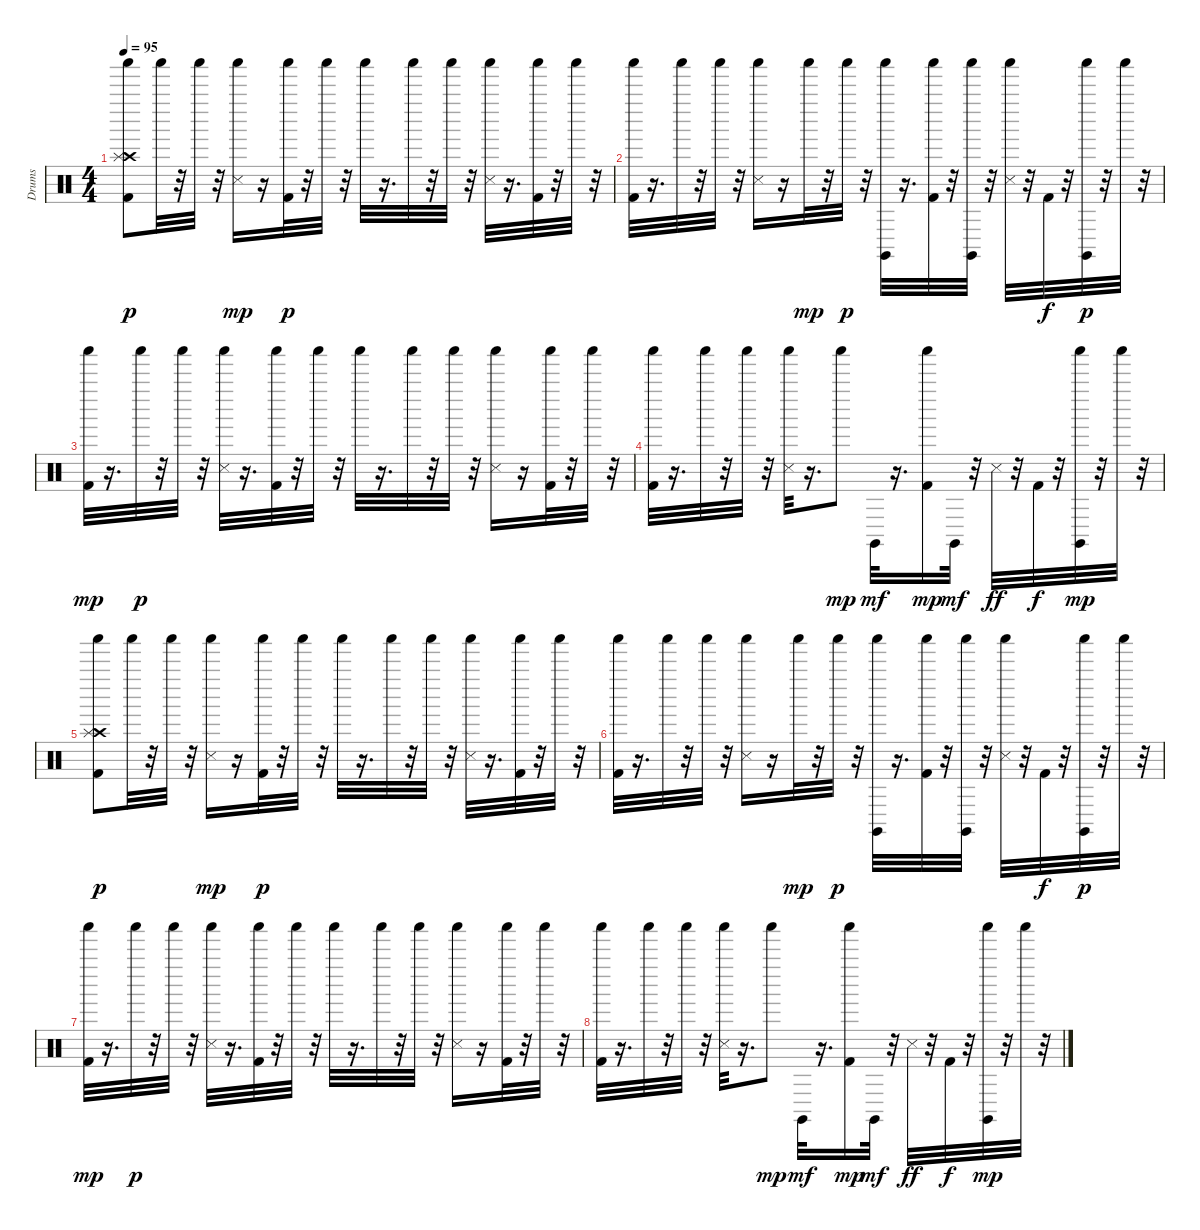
\track ("Drums" "Drums") {instrument percussion}
\staff {score}
\articulation defaults
\ts (4 4)
\tempo 95
\clef neutral
\ks c
("Kick (hit) 2" "Crash high (hit)" "Splash (hit)" "Shaker (hit)").8{dy p} "Shaker (hit)".32 r.32 "Shaker (hit)".32 r.32 ("Snare (side stick) 3" "Shaker (hit)").16{dy mp} r.16 ("Kick (hit) 2" "Shaker (hit)").32{dy p} r.32 "Shaker (hit)".32 r.32 "Shaker (hit)".32 r.16{d} "Shaker (hit)".32 r.32 "Shaker (hit)".32 r.32 ("Snare (side stick) 3" "Shaker (hit)").32 r.16{d} ("Kick (hit) 2" "Shaker (hit)").32 r.32 "Shaker (hit)".32 r.32 |
("Kick (hit) 2" "Shaker (hit)").32 r.16{d} "Shaker (hit)".32 r.32 "Shaker (hit)".32 r.32 ("Snare (side stick) 3" "Shaker (hit)").16 r.16 "Shaker (hit)".32{dy mp} r.32 "Shaker (hit)".32{dy p} r.32 ("Claves (hit)" "Shaker (hit)").32 r.16{d} ("Kick (hit) 2" "Shaker (hit)").32 r.32 ("Claves (hit)" "Shaker (hit)").32 r.32 ("Snare (side stick) 3" "Shaker (hit)").32 r.32 "Kick (hit) 2".32{dy f} r.32 ("Claves (hit)" "Shaker (hit)").32{dy p} r.32 "Shaker (hit)".32 r.32 |
("Kick (hit) 2" "Shaker (hit)").32{dy mp} r.16{d} "Shaker (hit)".32{dy p} r.32 "Shaker (hit)".32 r.32 ("Snare (side stick) 3" "Shaker (hit)").32 r.16{d} ("Kick (hit) 2" "Shaker (hit)").32 r.32 "Shaker (hit)".32 r.32 "Shaker (hit)".32 r.16{d} "Shaker (hit)".32 r.32 "Shaker (hit)".32 r.32 ("Snare (side stick) 3" "Shaker (hit)").16 r.16 ("Kick (hit) 2" "Shaker (hit)").32 r.32 "Shaker (hit)".32 r.32 |
("Kick (hit) 2" "Shaker (hit)").32 r.16{d} "Shaker (hit)".32 r.32 "Shaker (hit)".32 r.32 ("Snare (side stick) 3" "Shaker (hit)").32 r.16{d} "Shaker (hit)".8{dy mp} "Claves (hit)".32{dy mf} r.16{d} ("Kick (hit) 2" "Shaker (hit)").16{dy mp} "Claves (hit)".32{dy mf} r.32 "Snare (side stick) 3".32{dy ff} r.32 "Kick (hit) 2".32{dy f} r.32 ("Claves (hit)" "Shaker (hit)").32{dy mp} r.32 "Shaker (hit)".32 r.32 |
("Kick (hit) 2" "Crash high (hit)" "Splash (hit)" "Shaker (hit)").8{dy p} "Shaker (hit)".32 r.32 "Shaker (hit)".32 r.32 ("Snare (side stick) 3" "Shaker (hit)").16{dy mp} r.16 ("Kick (hit) 2" "Shaker (hit)").32{dy p} r.32 "Shaker (hit)".32 r.32 "Shaker (hit)".32 r.16{d} "Shaker (hit)".32 r.32 "Shaker (hit)".32 r.32 ("Snare (side stick) 3" "Shaker (hit)").32 r.16{d} ("Kick (hit) 2" "Shaker (hit)").32 r.32 "Shaker (hit)".32 r.32 |
("Kick (hit) 2" "Shaker (hit)").32 r.16{d} "Shaker (hit)".32 r.32 "Shaker (hit)".32 r.32 ("Snare (side stick) 3" "Shaker (hit)").16 r.16 "Shaker (hit)".32{dy mp} r.32 "Shaker (hit)".32{dy p} r.32 ("Claves (hit)" "Shaker (hit)").32 r.16{d} ("Kick (hit) 2" "Shaker (hit)").32 r.32 ("Claves (hit)" "Shaker (hit)").32 r.32 ("Snare (side stick) 3" "Shaker (hit)").32 r.32 "Kick (hit) 2".32{dy f} r.32 ("Claves (hit)" "Shaker (hit)").32{dy p} r.32 "Shaker (hit)".32 r.32 |
("Kick (hit) 2" "Shaker (hit)").32{dy mp} r.16{d} "Shaker (hit)".32{dy p} r.32 "Shaker (hit)".32 r.32 ("Snare (side stick) 3" "Shaker (hit)").32 r.16{d} ("Kick (hit) 2" "Shaker (hit)").32 r.32 "Shaker (hit)".32 r.32 "Shaker (hit)".32 r.16{d} "Shaker (hit)".32 r.32 "Shaker (hit)".32 r.32 ("Snare (side stick) 3" "Shaker (hit)").16 r.16 ("Kick (hit) 2" "Shaker (hit)").32 r.32 "Shaker (hit)".32 r.32 |
("Kick (hit) 2" "Shaker (hit)").32 r.16{d} "Shaker (hit)".32 r.32 "Shaker (hit)".32 r.32 ("Snare (side stick) 3" "Shaker (hit)").32 r.16{d} "Shaker (hit)".8{dy mp} "Claves (hit)".32{dy mf} r.16{d} ("Kick (hit) 2" "Shaker (hit)").16{dy mp} "Claves (hit)".32{dy mf} r.32 "Snare (side stick) 3".32{dy ff} r.32 "Kick (hit) 2".32{dy f} r.32 ("Claves (hit)" "Shaker (hit)").32{dy mp} r.32 "Shaker (hit)".32 r.32
